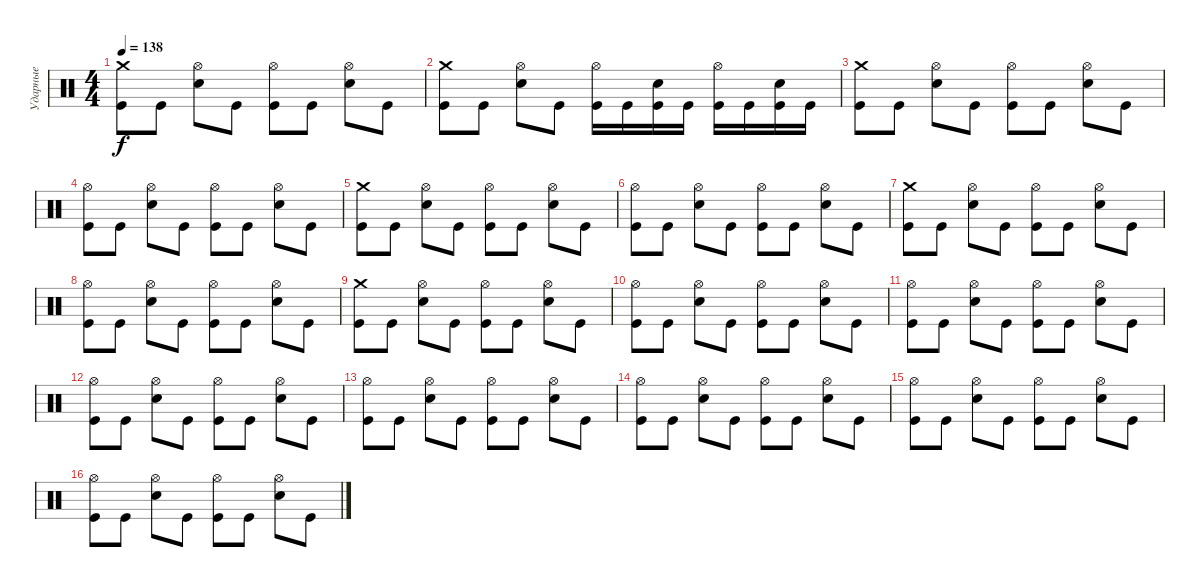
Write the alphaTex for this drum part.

\track ("Ударные" "Ударные") {instrument percussion}
\staff {score}
\articulation defaults
\ts (4 4)
\tempo 138
\clef neutral
\ks c
("Crash medium (hit)" "Kick (hit)").8{dy f} "Kick (hit)".8 ("Hi-Hat (open)" "Snare (hit) 2").8 "Kick (hit)".8 ("Hi-Hat (open)" "Kick (hit)").8 "Kick (hit)".8 ("Hi-Hat (open)" "Snare (hit) 2").8 "Kick (hit)".8 |
("Crash medium (hit)" "Kick (hit)").8 "Kick (hit)".8 ("Hi-Hat (open)" "Snare (hit) 2").8 "Kick (hit)".8 ("Hi-Hat (open)" "Kick (hit)").16 "Kick (hit)".16 ("Snare (hit) 2" "Kick (hit)").16 "Kick (hit)".16 ("Hi-Hat (open)" "Kick (hit)").16 "Kick (hit)".16 ("Snare (hit) 2" "Kick (hit)").16 "Kick (hit)".16 |
("Crash medium (hit)" "Kick (hit)").8 "Kick (hit)".8 ("Hi-Hat (open)" "Snare (hit) 2").8 "Kick (hit)".8 ("Hi-Hat (open)" "Kick (hit)").8 "Kick (hit)".8 ("Hi-Hat (open)" "Snare (hit) 2").8 "Kick (hit)".8 |
("Hi-Hat (open)" "Kick (hit)").8 "Kick (hit)".8 ("Hi-Hat (open)" "Snare (hit) 2").8 "Kick (hit)".8 ("Hi-Hat (open)" "Kick (hit)").8 "Kick (hit)".8 ("Hi-Hat (open)" "Snare (hit) 2").8 "Kick (hit)".8 |
("Crash medium (hit)" "Kick (hit)").8 "Kick (hit)".8 ("Hi-Hat (open)" "Snare (hit) 2").8 "Kick (hit)".8 ("Hi-Hat (open)" "Kick (hit)").8 "Kick (hit)".8 ("Hi-Hat (open)" "Snare (hit) 2").8 "Kick (hit)".8 |
("Hi-Hat (open)" "Kick (hit)").8 "Kick (hit)".8 ("Hi-Hat (open)" "Snare (hit) 2").8 "Kick (hit)".8 ("Hi-Hat (open)" "Kick (hit)").8 "Kick (hit)".8 ("Hi-Hat (open)" "Snare (hit) 2").8 "Kick (hit)".8 |
("Crash medium (hit)" "Kick (hit)").8 "Kick (hit)".8 ("Hi-Hat (open)" "Snare (hit) 2").8 "Kick (hit)".8 ("Hi-Hat (open)" "Kick (hit)").8 "Kick (hit)".8 ("Hi-Hat (open)" "Snare (hit) 2").8 "Kick (hit)".8 |
("Hi-Hat (open)" "Kick (hit)").8 "Kick (hit)".8 ("Hi-Hat (open)" "Snare (hit) 2").8 "Kick (hit)".8 ("Hi-Hat (open)" "Kick (hit)").8 "Kick (hit)".8 ("Hi-Hat (open)" "Snare (hit) 2").8 "Kick (hit)".8 |
("Crash medium (hit)" "Kick (hit)").8 "Kick (hit)".8 ("Hi-Hat (open)" "Snare (hit) 2").8 "Kick (hit)".8 ("Hi-Hat (open)" "Kick (hit)").8 "Kick (hit)".8 ("Hi-Hat (open)" "Snare (hit) 2").8 "Kick (hit)".8 |
("Hi-Hat (open)" "Kick (hit)").8 "Kick (hit)".8 ("Hi-Hat (open)" "Snare (hit) 2").8 "Kick (hit)".8 ("Hi-Hat (open)" "Kick (hit)").8 "Kick (hit)".8 ("Hi-Hat (open)" "Snare (hit) 2").8 "Kick (hit)".8 |
("Hi-Hat (open)" "Kick (hit)").8 "Kick (hit)".8 ("Hi-Hat (open)" "Snare (hit) 2").8 "Kick (hit)".8 ("Hi-Hat (open)" "Kick (hit)").8 "Kick (hit)".8 ("Hi-Hat (open)" "Snare (hit) 2").8 "Kick (hit)".8 |
("Hi-Hat (open)" "Kick (hit)").8 "Kick (hit)".8 ("Hi-Hat (open)" "Snare (hit) 2").8 "Kick (hit)".8 ("Hi-Hat (open)" "Kick (hit)").8 "Kick (hit)".8 ("Hi-Hat (open)" "Snare (hit) 2").8 "Kick (hit)".8 |
("Hi-Hat (open)" "Kick (hit)").8 "Kick (hit)".8 ("Hi-Hat (open)" "Snare (hit) 2").8 "Kick (hit)".8 ("Hi-Hat (open)" "Kick (hit)").8 "Kick (hit)".8 ("Hi-Hat (open)" "Snare (hit) 2").8 "Kick (hit)".8 |
("Hi-Hat (open)" "Kick (hit)").8 "Kick (hit)".8 ("Hi-Hat (open)" "Snare (hit) 2").8 "Kick (hit)".8 ("Hi-Hat (open)" "Kick (hit)").8 "Kick (hit)".8 ("Hi-Hat (open)" "Snare (hit) 2").8 "Kick (hit)".8 |
("Hi-Hat (open)" "Kick (hit)").8 "Kick (hit)".8 ("Hi-Hat (open)" "Snare (hit) 2").8 "Kick (hit)".8 ("Hi-Hat (open)" "Kick (hit)").8 "Kick (hit)".8 ("Hi-Hat (open)" "Snare (hit) 2").8 "Kick (hit)".8 |
("Hi-Hat (open)" "Kick (hit)").8 "Kick (hit)".8 ("Hi-Hat (open)" "Snare (hit) 2").8 "Kick (hit)".8 ("Hi-Hat (open)" "Kick (hit)").8 "Kick (hit)".8 ("Hi-Hat (open)" "Snare (hit) 2").8 "Kick (hit)".8
